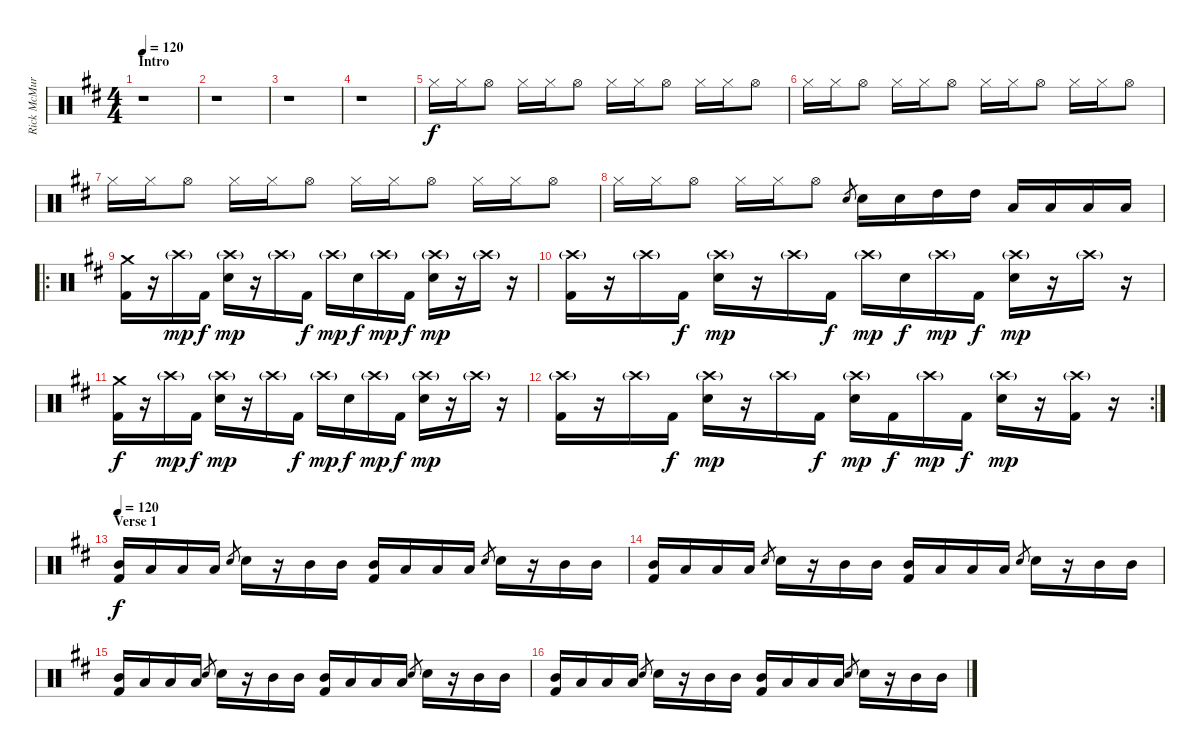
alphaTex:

\track ("Rick McMurray" "Rick McMur") {instrument percussion}
\staff {score}
\articulation defaults
\ts (4 4)
\section ("" "Intro")
\tempo 120
\clef neutral
\ks d
r.1{dy f} |
r.1 |
r.1 |
r.1 |
"Hi-Hat (closed)".16 "Hi-Hat (closed)".16 "Hi-Hat (open)".8 "Hi-Hat (closed)".16 "Hi-Hat (closed)".16 "Hi-Hat (open)".8 "Hi-Hat (closed)".16 "Hi-Hat (closed)".16 "Hi-Hat (open)".8 "Hi-Hat (closed)".16 "Hi-Hat (closed)".16 "Hi-Hat (open)".8 |
"Hi-Hat (closed)".16 "Hi-Hat (closed)".16 "Hi-Hat (open)".8 "Hi-Hat (closed)".16 "Hi-Hat (closed)".16 "Hi-Hat (open)".8 "Hi-Hat (closed)".16 "Hi-Hat (closed)".16 "Hi-Hat (open)".8 "Hi-Hat (closed)".16 "Hi-Hat (closed)".16 "Hi-Hat (open)".8 |
"Hi-Hat (closed)".16 "Hi-Hat (closed)".16 "Hi-Hat (open)".8 "Hi-Hat (closed)".16 "Hi-Hat (closed)".16 "Hi-Hat (open)".8 "Hi-Hat (closed)".16 "Hi-Hat (closed)".16 "Hi-Hat (open)".8 "Hi-Hat (closed)".16 "Hi-Hat (closed)".16 "Hi-Hat (open)".8 |
"Hi-Hat (closed)".16 "Hi-Hat (closed)".16 "Hi-Hat (open)".8 "Hi-Hat (closed)".16 "Hi-Hat (closed)".16 "Hi-Hat (open)".8 "Snare (hit) 2".8{gr} "Snare (hit) 2".16 "Snare (hit) 2".16 "High Tom (hit)".16 "High Tom (hit)".16 "Low Tom (hit)".16 "Low Tom (hit)".16 "Low Tom (hit)".16 "Low Tom (hit)".16 |
\ro
("Crash medium (hit)" "Kick (hit) 2").16 r.16 "Crash high (hit)"{g}.16{dy mp} "Kick (hit) 2".16{dy f} ("Crash high (hit)"{g} "Snare (hit) 2").16{dy mp} r.16 "Crash high (hit)"{g}.16 "Kick (hit) 2".16{dy f} "Crash high (hit)"{g}.16{dy mp} "Snare (hit) 2".16{dy f} "Crash high (hit)"{g}.16{dy mp} "Kick (hit) 2".16{dy f} ("Crash high (hit)"{g} "Snare (hit) 2").16{dy mp} r.16 "Crash high (hit)"{g}.16 r.16 |
("Crash high (hit)"{g} "Kick (hit) 2").16 r.16 "Crash high (hit)"{g}.16 "Kick (hit) 2".16{dy f} ("Crash high (hit)"{g} "Snare (hit) 2").16{dy mp} r.16 "Crash high (hit)"{g}.16 "Kick (hit) 2".16{dy f} "Crash high (hit)"{g}.16{dy mp} "Snare (hit) 2".16{dy f} "Crash high (hit)"{g}.16{dy mp} "Kick (hit) 2".16{dy f} ("Crash high (hit)"{g} "Snare (hit) 2").16{dy mp} r.16 "Crash high (hit)"{g}.16 r.16 |
("Crash medium (hit)" "Kick (hit) 2").16{dy f} r.16 "Crash high (hit)"{g}.16{dy mp} "Kick (hit) 2".16{dy f} ("Crash high (hit)"{g} "Snare (hit) 2").16{dy mp} r.16 "Crash high (hit)"{g}.16 "Kick (hit) 2".16{dy f} "Crash high (hit)"{g}.16{dy mp} "Snare (hit) 2".16{dy f} "Crash high (hit)"{g}.16{dy mp} "Kick (hit) 2".16{dy f} ("Crash high (hit)"{g} "Snare (hit) 2").16{dy mp} r.16 "Crash high (hit)"{g}.16 r.16 |
\rc 2
("Crash high (hit)"{g} "Kick (hit) 2").16 r.16 "Crash high (hit)"{g}.16 "Kick (hit) 2".16{dy f} ("Crash high (hit)"{g} "Snare (hit) 2").16{dy mp} r.16 "Crash high (hit)"{g}.16 "Kick (hit) 2".16{dy f} ("Crash high (hit)"{g} "Snare (hit) 2").16{dy mp} "Kick (hit) 2".16{dy f} "Crash high (hit)"{g}.16{dy mp} "Kick (hit) 2".16{dy f} ("Crash high (hit)"{g} "Snare (hit) 2").16{dy mp} r.16 ("Crash high (hit)"{g} "Kick (hit) 2").16 r.16 |
\section ("" "Verse 1")
\tempo 120
("Mid Tom (hit)" "Kick (hit) 2").16{dy f} "Low Tom (hit)".16 "Low Floor Tom (hit)".16 "Low Floor Tom (hit)".16 "Snare (hit) 2".8{gr} "Snare (hit) 2".16 r.16 "Mid Tom (hit)".16 "Mid Tom (hit)".16 ("Mid Tom (hit)" "Kick (hit) 2").16 "Low Tom (hit)".16 "Low Floor Tom (hit)".16 "Low Floor Tom (hit)".16 "Snare (hit) 2".8{gr} "Snare (hit) 2".16 r.16 "Mid Tom (hit)".16 "Mid Tom (hit)".16 |
("Mid Tom (hit)" "Kick (hit) 2").16 "Low Tom (hit)".16 "Low Tom (hit)".16 "Low Floor Tom (hit)".16 "Snare (hit) 2".8{gr} "Snare (hit) 2".16 r.16 "Mid Tom (hit)".16 "Mid Tom (hit)".16 ("Mid Tom (hit)" "Kick (hit) 2").16 "Low Tom (hit)".16 "Low Floor Tom (hit)".16 "Low Floor Tom (hit)".16 "Snare (hit) 2".8{gr} "Snare (hit) 2".16 r.16 "Mid Tom (hit)".16 "Mid Tom (hit)".16 |
("Mid Tom (hit)" "Kick (hit) 2").16 "Low Tom (hit)".16 "Low Floor Tom (hit)".16 "Low Floor Tom (hit)".16 "Snare (hit) 2".8{gr} "Snare (hit) 2".16 r.16 "Mid Tom (hit)".16 "Mid Tom (hit)".16 ("Mid Tom (hit)" "Kick (hit) 2").16 "Low Tom (hit)".16 "Low Floor Tom (hit)".16 "Low Floor Tom (hit)".16 "Snare (hit) 2".8{gr} "Snare (hit) 2".16 r.16 "Mid Tom (hit)".16 "Mid Tom (hit)".16 |
("Mid Tom (hit)" "Kick (hit) 2").16 "Low Tom (hit)".16 "Low Tom (hit)".16 "Low Floor Tom (hit)".16 "Snare (hit) 2".8{gr} "Snare (hit) 2".16 r.16 "Mid Tom (hit)".16 "Mid Tom (hit)".16 ("Mid Tom (hit)" "Kick (hit) 2").16 "Low Tom (hit)".16 "Low Floor Tom (hit)".16 "Low Floor Tom (hit)".16 "Snare (hit) 2".8{gr} "Snare (hit) 2".16 r.16 "Mid Tom (hit)".16 "Mid Tom (hit)".16
